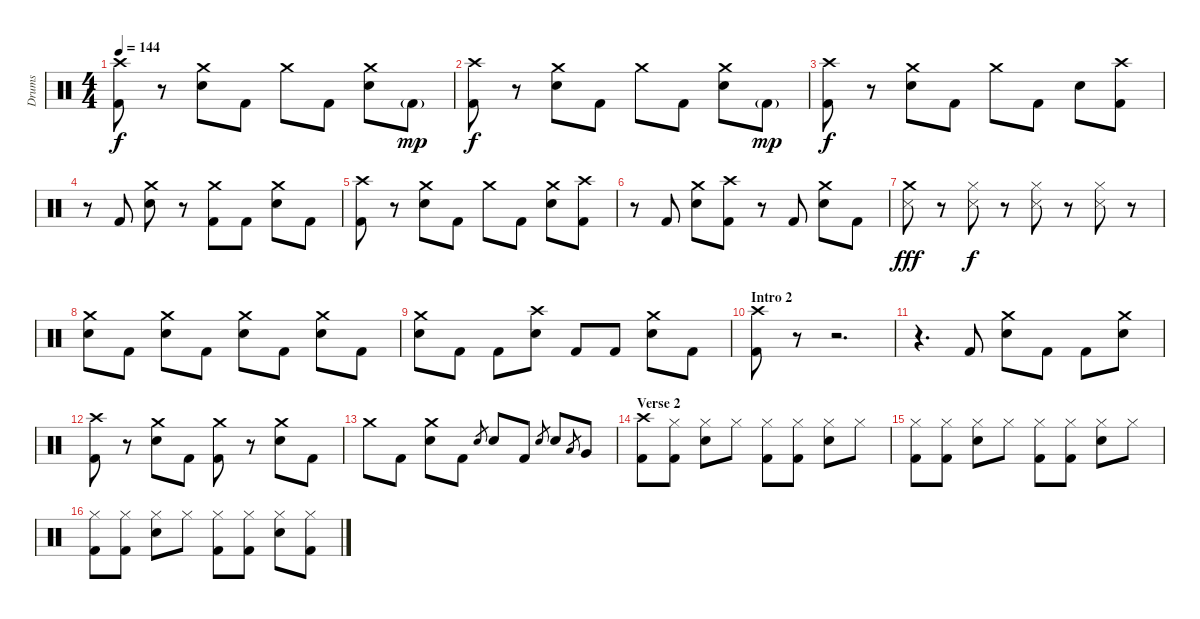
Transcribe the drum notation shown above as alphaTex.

\track ("Drums" "Drums") {instrument percussion}
\staff {score}
\articulation defaults
\ts (4 4)
\tempo 144
\clef neutral
\ks c
("Crash high (hit)" "Kick (hit) 2").8{dy f} r.8 ("Crash medium (hit)" "Snare (hit) 2").8 "Kick (hit) 2".8 "Crash medium (hit)".8 "Kick (hit) 2".8 ("Crash medium (hit)" "Snare (hit) 2").8 "Kick (hit) 2"{g}.8{dy mp} |
("Crash high (hit)" "Kick (hit) 2").8{dy f} r.8 ("Crash medium (hit)" "Snare (hit) 2").8 "Kick (hit) 2".8 "Crash medium (hit)".8 "Kick (hit) 2".8 ("Crash medium (hit)" "Snare (hit) 2").8 "Kick (hit) 2"{g}.8{dy mp} |
("Crash high (hit)" "Kick (hit) 2").8{dy f} r.8 ("Crash medium (hit)" "Snare (hit) 2").8 "Kick (hit) 2".8 "Crash medium (hit)".8 "Kick (hit) 2".8 "Snare (hit) 2".8 ("Crash high (hit)" "Kick (hit) 2").8 |
r.8 "Kick (hit) 2".8 ("Crash medium (hit)" "Snare (hit) 2").8 r.8 ("Crash medium (hit)" "Kick (hit) 2").8 "Kick (hit) 2".8 ("Crash medium (hit)" "Snare (hit) 2").8 "Kick (hit) 2".8 |
("Crash high (hit)" "Kick (hit) 2").8 r.8 ("Crash medium (hit)" "Snare (hit) 2").8 "Kick (hit) 2".8 "Crash medium (hit)".8 "Kick (hit) 2".8 ("Crash medium (hit)" "Snare (hit) 2").8 ("Crash high (hit)" "Kick (hit) 2").8 |
r.8 "Kick (hit) 2".8 ("Crash medium (hit)" "Snare (hit) 2").8 ("Crash high (hit)" "Kick (hit) 2").8 r.8 "Kick (hit) 2".8 ("Crash medium (hit)" "Snare (hit) 2").8 "Kick (hit) 2".8 |
("Crash medium (hit)" "Snare (side stick) 3").8{dy fff} r.8 ("Hi-Hat (closed)" "Snare (side stick) 3").8{dy f} r.8 ("Hi-Hat (closed)" "Snare (side stick) 3").8 r.8 ("Hi-Hat (closed)" "Snare (side stick) 3").8 r.8 |
("Crash medium (hit)" "Snare (hit) 2").8 "Kick (hit) 2".8 ("Crash medium (hit)" "Snare (hit) 2").8 "Kick (hit) 2".8 ("Crash medium (hit)" "Snare (hit) 2").8 "Kick (hit) 2".8 ("Crash medium (hit)" "Snare (hit) 2").8 "Kick (hit) 2".8 |
("Crash medium (hit)" "Snare (hit) 2").8 "Kick (hit) 2".8 "Kick (hit) 2".8 ("Crash high (hit)" "Snare (hit) 2").8 "Kick (hit) 2".8 "Kick (hit) 2".8 ("Crash medium (hit)" "Snare (hit) 2").8 "Kick (hit) 2".8 |
\section ("" "Intro 2")
("Crash high (hit)" "Kick (hit) 2").8 r.8 r.2{d} |
r.4{d} "Kick (hit) 2".8 ("Crash medium (hit)" "Snare (hit) 2").8 "Kick (hit) 2".8 "Kick (hit) 2".8 ("Crash medium (hit)" "Snare (hit) 2").8 |
("Crash high (hit)" "Kick (hit) 2").8 r.8 ("Crash medium (hit)" "Snare (hit) 2").8 "Kick (hit) 2".8 ("Crash medium (hit)" "Kick (hit) 2").8 r.8 ("Crash medium (hit)" "Snare (hit) 2").8 "Kick (hit) 2".8 |
"Crash medium (hit)".8 "Kick (hit) 2".8 ("Crash medium (hit)" "Snare (hit) 2").8 "Kick (hit) 2".8 "Snare (hit) 2".8{gr} "Snare (hit) 2".8 "Kick (hit) 2".8 "Snare (hit) 2".8{gr} "Snare (hit) 2".8 "Low Tom (hit)".8{gr} "Very Low Tom (hit)".8 |
\section ("" "Verse 2")
("Crash high (hit)" "Kick (hit) 2").8 ("Hi-Hat (closed)" "Kick (hit) 2").8 ("Hi-Hat (closed)" "Snare (hit) 2").8 "Hi-Hat (closed)".8 ("Hi-Hat (closed)" "Kick (hit) 2").8 ("Hi-Hat (closed)" "Kick (hit) 2").8 ("Hi-Hat (closed)" "Snare (hit) 2").8 "Hi-Hat (closed)".8 |
("Hi-Hat (closed)" "Kick (hit) 2").8 ("Hi-Hat (closed)" "Kick (hit) 2").8 ("Hi-Hat (closed)" "Snare (hit) 2").8 "Hi-Hat (closed)".8 ("Hi-Hat (closed)" "Kick (hit) 2").8 ("Hi-Hat (closed)" "Kick (hit) 2").8 ("Hi-Hat (closed)" "Snare (hit) 2").8 "Hi-Hat (closed)".8 |
("Hi-Hat (closed)" "Kick (hit) 2").8 ("Hi-Hat (closed)" "Kick (hit) 2").8 ("Hi-Hat (closed)" "Snare (hit) 2").8 "Hi-Hat (closed)".8 ("Hi-Hat (closed)" "Kick (hit) 2").8 ("Hi-Hat (closed)" "Kick (hit) 2").8 ("Hi-Hat (closed)" "Snare (hit) 2").8 ("Hi-Hat (closed)" "Kick (hit) 2").8
